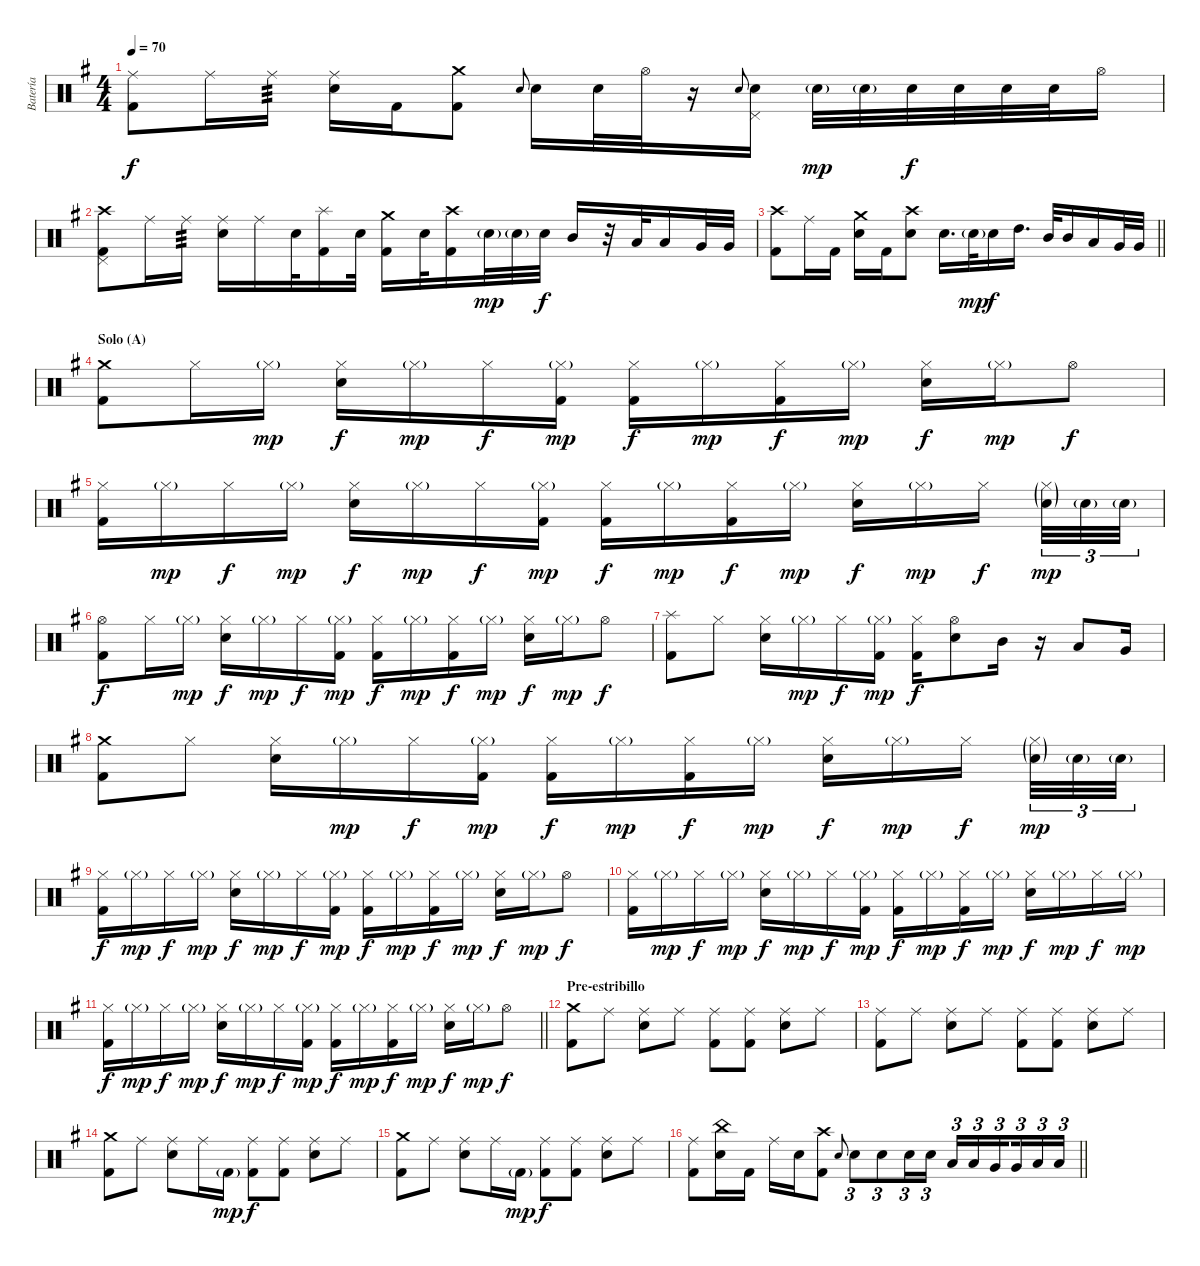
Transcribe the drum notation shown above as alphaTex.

\track ("Batería" "Batería") {instrument percussion}
\staff {score}
\articulation defaults
\ts (4 4)
\tempo 70
\clef neutral
\ks g
("Ride (middle)" "Kick (hit) 2").8{dy f} "Ride (middle)".16 "Ride (middle)".16{tp 3} ("Ride (middle)" "Electric Snare (hit)").16 "Kick (hit) 2".16 ("Crash medium (hit)" "Kick (hit) 2").8 "Electric Snare (hit)".8{gr onbeat} "Electric Snare (hit)".16 "Electric Snare (hit)".32 "Hi-Hat (open)".32 r.16 "Electric Snare (hit)".8{gr onbeat} ("Electric Snare (hit)" "Pedal Hi-Hat (hit)").16 "Electric Snare (hit)"{g}.32{dy mp} "Electric Snare (hit)"{g}.32 "Electric Snare (hit)".32{dy f} "Electric Snare (hit)".32 "Electric Snare (hit)".32 "Electric Snare (hit)".32 "Hi-Hat (open)".16 |
("Crash high (hit)" "Pedal Hi-Hat (hit)" "Kick (hit) 2").8 "Ride (middle)".16 "Ride (middle)".16{tp 3} ("Ride (middle)" "Electric Snare (hit)").16 "Ride (middle)".16 "Electric Snare (hit)".32 ("Splash (hit)" "Kick (hit) 2").16 "Electric Snare (hit)".32 ("Crash medium (hit)" "Kick (hit) 2").16 "Electric Snare (hit)".32 ("Crash high (hit)" "Kick (hit) 2").16 "Electric Snare (hit)"{g}.32{dy mp} "Electric Snare (hit)"{g}.32 "Electric Snare (hit)".32{dy f} "Mid Tom (hit)".16 r.32 "Low Tom (hit)".32 "Low Tom (hit)".16 "Very Low Tom (hit)".32 "Very Low Tom (hit)".32 |
\barLineRight lightlight
("Crash high (hit)" "Kick (hit) 2").8 "Ride (middle)".16 "Kick (hit) 2".16 ("Crash medium (hit)" "Electric Snare (hit)").16 "Kick (hit) 2".16 ("Crash high (hit)" "Electric Snare (hit)").8 "Electric Snare (hit)".16{d} "Electric Snare (hit)"{g}.32{dy mp} "Electric Snare (hit)".16{dy f} "High Tom (hit)".16{d} "Mid Tom (hit)".32 "Mid Tom (hit)".16 "Low Tom (hit)".16 "Very Low Tom (hit)".32 "Very Low Tom (hit)".32 |
\section ("" "Solo (A)")
("Crash medium (hit)" "Kick (hit) 2").8 "Hi-Hat (closed)".16 "Hi-Hat (closed)"{g}.16{dy mp} ("Hi-Hat (closed)" "Electric Snare (hit)").16{dy f} "Hi-Hat (closed)"{g}.16{dy mp} "Hi-Hat (closed)".16{dy f} ("Hi-Hat (closed)"{g} "Kick (hit) 2").16{dy mp} ("Hi-Hat (closed)" "Kick (hit) 2").16{dy f} "Hi-Hat (closed)"{g}.16{dy mp} ("Hi-Hat (closed)" "Kick (hit) 2").16{dy f} "Hi-Hat (closed)"{g}.16{dy mp} ("Hi-Hat (closed)" "Electric Snare (hit)").16{dy f} "Hi-Hat (closed)"{g}.16{dy mp} "Hi-Hat (open)".8{dy f} |
("Hi-Hat (closed)" "Kick (hit) 2").16 "Hi-Hat (closed)"{g}.16{dy mp} "Hi-Hat (closed)".16{dy f} "Hi-Hat (closed)"{g}.16{dy mp} ("Hi-Hat (closed)" "Electric Snare (hit)").16{dy f} "Hi-Hat (closed)"{g}.16{dy mp} "Hi-Hat (closed)".16{dy f} ("Hi-Hat (closed)"{g} "Kick (hit) 2").16{dy mp} ("Hi-Hat (closed)" "Kick (hit) 2").16{dy f} "Hi-Hat (closed)"{g}.16{dy mp} ("Hi-Hat (closed)" "Kick (hit) 2").16{dy f} "Hi-Hat (closed)"{g}.16{dy mp} ("Hi-Hat (closed)" "Electric Snare (hit)").16{dy f} "Hi-Hat (closed)"{g}.16{dy mp} "Hi-Hat (closed)".16{dy f beam splitsecondary} ("Hi-Hat (closed)"{g} "Electric Snare (hit)"{g}).32{tu (3 2) dy mp} "Electric Snare (hit)"{g}.32{tu (3 2)} "Electric Snare (hit)"{g}.32{tu (3 2)} |
("Hi-Hat (open)" "Kick (hit) 2").8{dy f} "Hi-Hat (closed)".16 "Hi-Hat (closed)"{g}.16{dy mp} ("Hi-Hat (closed)" "Electric Snare (hit)").16{dy f} "Hi-Hat (closed)"{g}.16{dy mp} "Hi-Hat (closed)".16{dy f} ("Hi-Hat (closed)"{g} "Kick (hit) 2").16{dy mp} ("Hi-Hat (closed)" "Kick (hit) 2").16{dy f} "Hi-Hat (closed)"{g}.16{dy mp} ("Hi-Hat (closed)" "Kick (hit) 2").16{dy f} "Hi-Hat (closed)"{g}.16{dy mp} ("Hi-Hat (closed)" "Electric Snare (hit)").16{dy f} "Hi-Hat (closed)"{g}.16{dy mp} "Hi-Hat (open)".8{dy f} |
("Splash (hit)" "Kick (hit) 2").8 "Hi-Hat (closed)".8 ("Hi-Hat (closed)" "Electric Snare (hit)").16 "Hi-Hat (closed)"{g}.16{dy mp} "Hi-Hat (closed)".16{dy f} ("Hi-Hat (closed)"{g} "Kick (hit) 2").16{dy mp} ("Hi-Hat (closed)" "Kick (hit) 2").16{dy f} ("Hi-Hat (open)" "Electric Snare (hit)").8 "Mid Tom (hit)".16 r.16 "Low Tom (hit)".8 "Very Low Tom (hit)".16 |
("Crash medium (hit)" "Kick (hit) 2").8 "Hi-Hat (closed)".8 ("Hi-Hat (closed)" "Electric Snare (hit)").16 "Hi-Hat (closed)"{g}.16{dy mp} "Hi-Hat (closed)".16{dy f} ("Hi-Hat (closed)"{g} "Kick (hit) 2").16{dy mp} ("Hi-Hat (closed)" "Kick (hit) 2").16{dy f} "Hi-Hat (closed)"{g}.16{dy mp} ("Hi-Hat (closed)" "Kick (hit) 2").16{dy f} "Hi-Hat (closed)"{g}.16{dy mp} ("Hi-Hat (closed)" "Electric Snare (hit)").16{dy f} "Hi-Hat (closed)"{g}.16{dy mp} "Hi-Hat (closed)".16{dy f beam splitsecondary} ("Hi-Hat (closed)"{g} "Electric Snare (hit)"{g}).32{tu (3 2) dy mp} "Electric Snare (hit)"{g}.32{tu (3 2)} "Electric Snare (hit)"{g}.32{tu (3 2)} |
("Hi-Hat (closed)" "Kick (hit) 2").16{dy f} "Hi-Hat (closed)"{g}.16{dy mp} "Hi-Hat (closed)".16{dy f} "Hi-Hat (closed)"{g}.16{dy mp} ("Hi-Hat (closed)" "Electric Snare (hit)").16{dy f} "Hi-Hat (closed)"{g}.16{dy mp} "Hi-Hat (closed)".16{dy f} ("Hi-Hat (closed)"{g} "Kick (hit) 2").16{dy mp} ("Hi-Hat (closed)" "Kick (hit) 2").16{dy f} "Hi-Hat (closed)"{g}.16{dy mp} ("Hi-Hat (closed)" "Kick (hit) 2").16{dy f} "Hi-Hat (closed)"{g}.16{dy mp} ("Hi-Hat (closed)" "Electric Snare (hit)").16{dy f} "Hi-Hat (closed)"{g}.16{dy mp} "Hi-Hat (open)".8{dy f} |
("Hi-Hat (closed)" "Kick (hit) 2").16 "Hi-Hat (closed)"{g}.16{dy mp} "Hi-Hat (closed)".16{dy f} "Hi-Hat (closed)"{g}.16{dy mp} ("Hi-Hat (closed)" "Electric Snare (hit)").16{dy f} "Hi-Hat (closed)"{g}.16{dy mp} "Hi-Hat (closed)".16{dy f} ("Hi-Hat (closed)"{g} "Kick (hit) 2").16{dy mp} ("Hi-Hat (closed)" "Kick (hit) 2").16{dy f} "Hi-Hat (closed)"{g}.16{dy mp} ("Hi-Hat (closed)" "Kick (hit) 2").16{dy f} "Hi-Hat (closed)"{g}.16{dy mp} ("Hi-Hat (closed)" "Electric Snare (hit)").16{dy f} "Hi-Hat (closed)"{g}.16{dy mp} "Hi-Hat (closed)".16{dy f} "Hi-Hat (closed)"{g}.16{dy mp} |
\barLineRight lightlight
("Hi-Hat (closed)" "Kick (hit) 2").16{dy f} "Hi-Hat (closed)"{g}.16{dy mp} "Hi-Hat (closed)".16{dy f} "Hi-Hat (closed)"{g}.16{dy mp} ("Hi-Hat (closed)" "Electric Snare (hit)").16{dy f} "Hi-Hat (closed)"{g}.16{dy mp} "Hi-Hat (closed)".16{dy f} ("Hi-Hat (closed)"{g} "Kick (hit) 2").16{dy mp} ("Hi-Hat (closed)" "Kick (hit) 2").16{dy f} "Hi-Hat (closed)"{g}.16{dy mp} ("Hi-Hat (closed)" "Kick (hit) 2").16{dy f} "Hi-Hat (closed)"{g}.16{dy mp} ("Hi-Hat (closed)" "Electric Snare (hit)").16{dy f} "Hi-Hat (closed)"{g}.16{dy mp} "Hi-Hat (open)".8{dy f} |
\section ("" "Pre-estribillo")
("Crash medium (hit)" "Kick (hit) 2").8 "Ride (middle)".8 ("Ride (middle)" "Electric Snare (hit)").8 "Ride (middle)".8 ("Ride (middle)" "Kick (hit) 2").8 ("Ride (middle)" "Kick (hit) 2").8 ("Ride (middle)" "Electric Snare (hit)").8 "Ride (middle)".8 |
("Ride (middle)" "Kick (hit) 2").8 "Ride (middle)".8 ("Ride (middle)" "Electric Snare (hit)").8 "Ride (middle)".8 ("Ride (middle)" "Kick (hit) 2").8 ("Ride (middle)" "Kick (hit) 2").8 ("Ride (middle)" "Electric Snare (hit)").8 "Ride (middle)".8 |
("Crash medium (hit)" "Kick (hit) 2").8 "Ride (middle)".8 ("Ride (middle)" "Electric Snare (hit)").8 "Ride (middle)".16 "Kick (hit) 2"{g}.16{dy mp} ("Ride (middle)" "Kick (hit) 2").8{dy f} ("Ride (middle)" "Kick (hit) 2").8 ("Ride (middle)" "Electric Snare (hit)").8 "Ride (middle)".8 |
("Crash medium (hit)" "Kick (hit) 2").8 "Ride (middle)".8 ("Ride (middle)" "Electric Snare (hit)").8 "Ride (middle)".16 "Kick (hit) 2"{g}.16{dy mp} ("Ride (middle)" "Kick (hit) 2").8{dy f} ("Ride (middle)" "Kick (hit) 2").8 ("Ride (middle)" "Electric Snare (hit)").8 "Ride (middle)".8 |
\barLineRight lightlight
("Ride (middle)" "Kick (hit) 2").8 ("China (hit)" "Electric Snare (hit)").16 "Kick (hit) 2".16 "Ride (middle)".16 "Electric Snare (hit)".16 ("Crash high (hit)" "Kick (hit) 2").8 "Electric Snare (hit)".8{gr onbeat} "Electric Snare (hit)".8{tu (3 2)} "Electric Snare (hit)".8{tu (3 2)} "Electric Snare (hit)".16{tu (3 2)} "Electric Snare (hit)".16{tu (3 2)} "Low Tom (hit)".16{tu (3 2)} "Low Tom (hit)".16{tu (3 2)} "Very Low Tom (hit)".16{tu (3 2) beam splitsecondary} "Very Low Tom (hit)".16{tu (3 2)} "Low Floor Tom (hit)".16{tu (3 2)} "Low Floor Tom (hit)".16{tu (3 2)}
